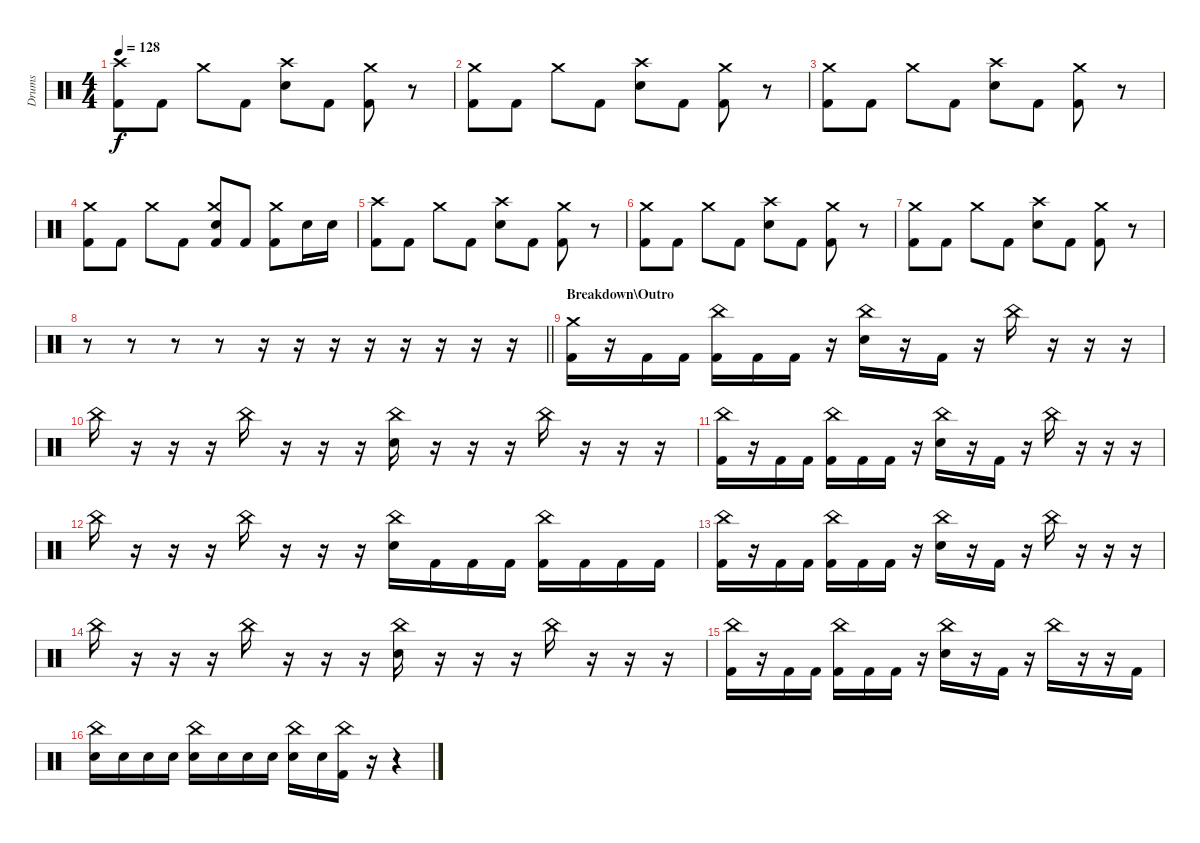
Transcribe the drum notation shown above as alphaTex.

\track ("Drums" "Drums") {instrument percussion}
\staff {score}
\articulation defaults
\ts (4 4)
\tempo 128
\clef neutral
\ks c
("Crash high (hit)" "Kick (hit) 2").8{dy f} "Kick (hit) 2".8 "Crash medium (hit)".8 "Kick (hit) 2".8 ("Crash high (hit)" "Electric Snare (hit)").8 "Kick (hit) 2".8 ("Crash medium (hit)" "Kick (hit) 2").8 r.8 |
("Crash medium (hit)" "Kick (hit) 2").8 "Kick (hit) 2".8 "Crash medium (hit)".8 "Kick (hit) 2".8 ("Crash high (hit)" "Electric Snare (hit)").8 "Kick (hit) 2".8 ("Crash medium (hit)" "Kick (hit) 2").8 r.8 |
("Crash medium (hit)" "Kick (hit) 2").8 "Kick (hit) 2".8 "Crash medium (hit)".8 "Kick (hit) 2".8 ("Crash high (hit)" "Electric Snare (hit)").8 "Kick (hit) 2".8 ("Crash medium (hit)" "Kick (hit) 2").8 r.8 |
("Crash medium (hit)" "Kick (hit) 2").8 "Kick (hit) 2".8 "Crash medium (hit)".8 "Kick (hit) 2".8 ("Crash medium (hit)" "Electric Snare (hit)" "Kick (hit) 2").8 "Kick (hit) 2".8 ("Crash medium (hit)" "Kick (hit) 2").8 "Electric Snare (hit)".16 "Electric Snare (hit)".16 |
("Crash high (hit)" "Kick (hit) 2").8 "Kick (hit) 2".8 "Crash medium (hit)".8 "Kick (hit) 2".8 ("Crash high (hit)" "Electric Snare (hit)").8 "Kick (hit) 2".8 ("Crash medium (hit)" "Kick (hit) 2").8 r.8 |
("Crash medium (hit)" "Kick (hit) 2").8 "Kick (hit) 2".8 "Crash medium (hit)".8 "Kick (hit) 2".8 ("Crash high (hit)" "Electric Snare (hit)").8 "Kick (hit) 2".8 ("Crash medium (hit)" "Kick (hit) 2").8 r.8 |
("Crash medium (hit)" "Kick (hit) 2").8 "Kick (hit) 2".8 "Crash medium (hit)".8 "Kick (hit) 2".8 ("Crash high (hit)" "Electric Snare (hit)").8 "Kick (hit) 2".8 ("Crash medium (hit)" "Kick (hit) 2").8 r.8 |
\barLineRight lightlight
r.8 r.8 r.8 r.8 r.16 r.16 r.16 r.16 r.16 r.16 r.16 r.16 |
\section ("" "Breakdown\\Outro")
("Crash medium (hit)" "Kick (hit) 2").16 r.16 "Kick (hit) 2".16 "Kick (hit) 2".16 ("China (hit)" "Kick (hit) 2").16 "Kick (hit) 2".16 "Kick (hit) 2".16 r.16 ("China (hit)" "Electric Snare (hit)").16 r.16 "Kick (hit) 2".16 r.16 "China (hit)".16 r.16 r.16 r.16 |
"China (hit)".16 r.16 r.16 r.16 "China (hit)".16 r.16 r.16 r.16 ("China (hit)" "Electric Snare (hit)").16 r.16 r.16 r.16 "China (hit)".16 r.16 r.16 r.16 |
("China (hit)" "Kick (hit) 2").16 r.16 "Kick (hit) 2".16 "Kick (hit) 2".16 ("China (hit)" "Kick (hit) 2").16 "Kick (hit) 2".16 "Kick (hit) 2".16 r.16 ("China (hit)" "Electric Snare (hit)").16 r.16 "Kick (hit) 2".16 r.16 "China (hit)".16 r.16 r.16 r.16 |
"China (hit)".16 r.16 r.16 r.16 "China (hit)".16 r.16 r.16 r.16 ("China (hit)" "Electric Snare (hit)").16 "Kick (hit) 2".16 "Kick (hit) 2".16 "Kick (hit) 2".16 ("China (hit)" "Kick (hit) 2").16 "Kick (hit) 2".16 "Kick (hit) 2".16 "Kick (hit) 2".16 |
("China (hit)" "Kick (hit) 2").16 r.16 "Kick (hit) 2".16 "Kick (hit) 2".16 ("China (hit)" "Kick (hit) 2").16 "Kick (hit) 2".16 "Kick (hit) 2".16 r.16 ("China (hit)" "Electric Snare (hit)").16 r.16 "Kick (hit) 2".16 r.16 "China (hit)".16 r.16 r.16 r.16 |
"China (hit)".16 r.16 r.16 r.16 "China (hit)".16 r.16 r.16 r.16 ("China (hit)" "Electric Snare (hit)").16 r.16 r.16 r.16 "China (hit)".16 r.16 r.16 r.16 |
("China (hit)" "Kick (hit) 2").16 r.16 "Kick (hit) 2".16 "Kick (hit) 2".16 ("China (hit)" "Kick (hit) 2").16 "Kick (hit) 2".16 "Kick (hit) 2".16 r.16 ("China (hit)" "Electric Snare (hit)").16 r.16 "Kick (hit) 2".16 r.16 "China (hit)".16 r.16 r.16 "Kick (hit) 2".16 |
("China (hit)" "Electric Snare (hit)").16 "Electric Snare (hit)".16 "Electric Snare (hit)".16 "Electric Snare (hit)".16 ("China (hit)" "Electric Snare (hit)").16 "Electric Snare (hit)".16 "Electric Snare (hit)".16 "Electric Snare (hit)".16 ("China (hit)" "Electric Snare (hit)").16 "Electric Snare (hit)".16 ("China (hit)" "Kick (hit) 2").16 r.16 r.4
